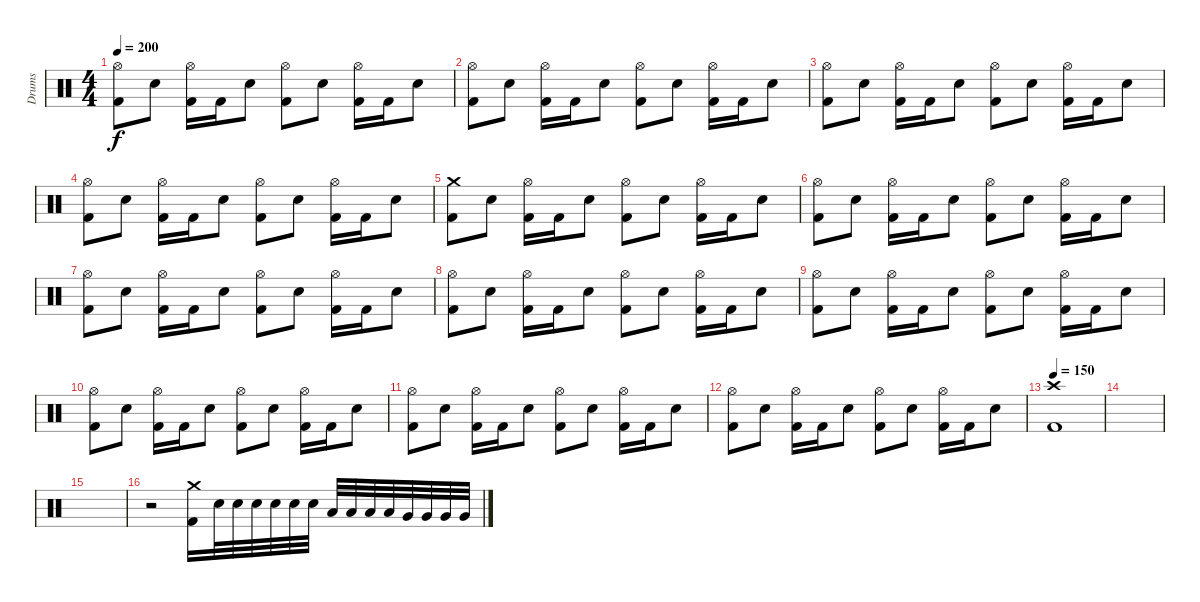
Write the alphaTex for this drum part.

\track ("Drums" "Drums") {instrument percussion}
\staff {score}
\articulation defaults
\ts (4 4)
\tempo 200
\clef neutral
\ks c
("Hi-Hat (open)" "Kick (hit) 2").8{dy f} "Electric Snare (hit)".8 ("Hi-Hat (open)" "Kick (hit) 2").16 "Kick (hit) 2".16 "Electric Snare (hit)".8 ("Hi-Hat (open)" "Kick (hit) 2").8 "Electric Snare (hit)".8 ("Hi-Hat (open)" "Kick (hit) 2").16 "Kick (hit) 2".16 "Electric Snare (hit)".8 |
("Hi-Hat (open)" "Kick (hit) 2").8 "Electric Snare (hit)".8 ("Hi-Hat (open)" "Kick (hit) 2").16 "Kick (hit) 2".16 "Electric Snare (hit)".8 ("Hi-Hat (open)" "Kick (hit) 2").8 "Electric Snare (hit)".8 ("Hi-Hat (open)" "Kick (hit) 2").16 "Kick (hit) 2".16 "Electric Snare (hit)".8 |
("Hi-Hat (open)" "Kick (hit) 2").8 "Electric Snare (hit)".8 ("Hi-Hat (open)" "Kick (hit) 2").16 "Kick (hit) 2".16 "Electric Snare (hit)".8 ("Hi-Hat (open)" "Kick (hit) 2").8 "Electric Snare (hit)".8 ("Hi-Hat (open)" "Kick (hit) 2").16 "Kick (hit) 2".16 "Electric Snare (hit)".8 |
("Hi-Hat (open)" "Kick (hit) 2").8 "Electric Snare (hit)".8 ("Hi-Hat (open)" "Kick (hit) 2").16 "Kick (hit) 2".16 "Electric Snare (hit)".8 ("Hi-Hat (open)" "Kick (hit) 2").8 "Electric Snare (hit)".8 ("Hi-Hat (open)" "Kick (hit) 2").16 "Kick (hit) 2".16 "Electric Snare (hit)".8 |
("Crash medium (hit)" "Kick (hit) 2").8 "Electric Snare (hit)".8 ("Hi-Hat (open)" "Kick (hit) 2").16 "Kick (hit) 2".16 "Electric Snare (hit)".8 ("Hi-Hat (open)" "Kick (hit) 2").8 "Electric Snare (hit)".8 ("Hi-Hat (open)" "Kick (hit) 2").16 "Kick (hit) 2".16 "Electric Snare (hit)".8 |
("Hi-Hat (open)" "Kick (hit) 2").8 "Electric Snare (hit)".8 ("Hi-Hat (open)" "Kick (hit) 2").16 "Kick (hit) 2".16 "Electric Snare (hit)".8 ("Hi-Hat (open)" "Kick (hit) 2").8 "Electric Snare (hit)".8 ("Hi-Hat (open)" "Kick (hit) 2").16 "Kick (hit) 2".16 "Electric Snare (hit)".8 |
("Hi-Hat (open)" "Kick (hit) 2").8 "Electric Snare (hit)".8 ("Hi-Hat (open)" "Kick (hit) 2").16 "Kick (hit) 2".16 "Electric Snare (hit)".8 ("Hi-Hat (open)" "Kick (hit) 2").8 "Electric Snare (hit)".8 ("Hi-Hat (open)" "Kick (hit) 2").16 "Kick (hit) 2".16 "Electric Snare (hit)".8 |
("Hi-Hat (open)" "Kick (hit) 2").8 "Electric Snare (hit)".8 ("Hi-Hat (open)" "Kick (hit) 2").16 "Kick (hit) 2".16 "Electric Snare (hit)".8 ("Hi-Hat (open)" "Kick (hit) 2").8 "Electric Snare (hit)".8 ("Hi-Hat (open)" "Kick (hit) 2").16 "Kick (hit) 2".16 "Electric Snare (hit)".8 |
("Hi-Hat (open)" "Kick (hit) 2").8 "Electric Snare (hit)".8 ("Hi-Hat (open)" "Kick (hit) 2").16 "Kick (hit) 2".16 "Electric Snare (hit)".8 ("Hi-Hat (open)" "Kick (hit) 2").8 "Electric Snare (hit)".8 ("Hi-Hat (open)" "Kick (hit) 2").16 "Kick (hit) 2".16 "Electric Snare (hit)".8 |
("Hi-Hat (open)" "Kick (hit) 2").8 "Electric Snare (hit)".8 ("Hi-Hat (open)" "Kick (hit) 2").16 "Kick (hit) 2".16 "Electric Snare (hit)".8 ("Hi-Hat (open)" "Kick (hit) 2").8 "Electric Snare (hit)".8 ("Hi-Hat (open)" "Kick (hit) 2").16 "Kick (hit) 2".16 "Electric Snare (hit)".8 |
("Hi-Hat (open)" "Kick (hit) 2").8 "Electric Snare (hit)".8 ("Hi-Hat (open)" "Kick (hit) 2").16 "Kick (hit) 2".16 "Electric Snare (hit)".8 ("Hi-Hat (open)" "Kick (hit) 2").8 "Electric Snare (hit)".8 ("Hi-Hat (open)" "Kick (hit) 2").16 "Kick (hit) 2".16 "Electric Snare (hit)".8 |
("Hi-Hat (open)" "Kick (hit) 2").8 "Electric Snare (hit)".8 ("Hi-Hat (open)" "Kick (hit) 2").16 "Kick (hit) 2".16 "Electric Snare (hit)".8 ("Hi-Hat (open)" "Kick (hit) 2").8 "Electric Snare (hit)".8 ("Hi-Hat (open)" "Kick (hit) 2").16 "Kick (hit) 2".16 "Electric Snare (hit)".8 |
\tempo 150
("Crash high (hit)" "Kick (hit) 2").1 |
|
|
r.2 ("Crash medium (hit)" "Kick (hit) 2").16 "Electric Snare (hit)".32 "Electric Snare (hit)".32 "Electric Snare (hit)".32 "Electric Snare (hit)".32 "Electric Snare (hit)".32 "Electric Snare (hit)".32 "Low Tom (hit)".32 "Low Tom (hit)".32 "Low Tom (hit)".32 "Low Tom (hit)".32 "Very Low Tom (hit)".32 "Very Low Tom (hit)".32 "Very Low Tom (hit)".32 "Very Low Tom (hit)".32
